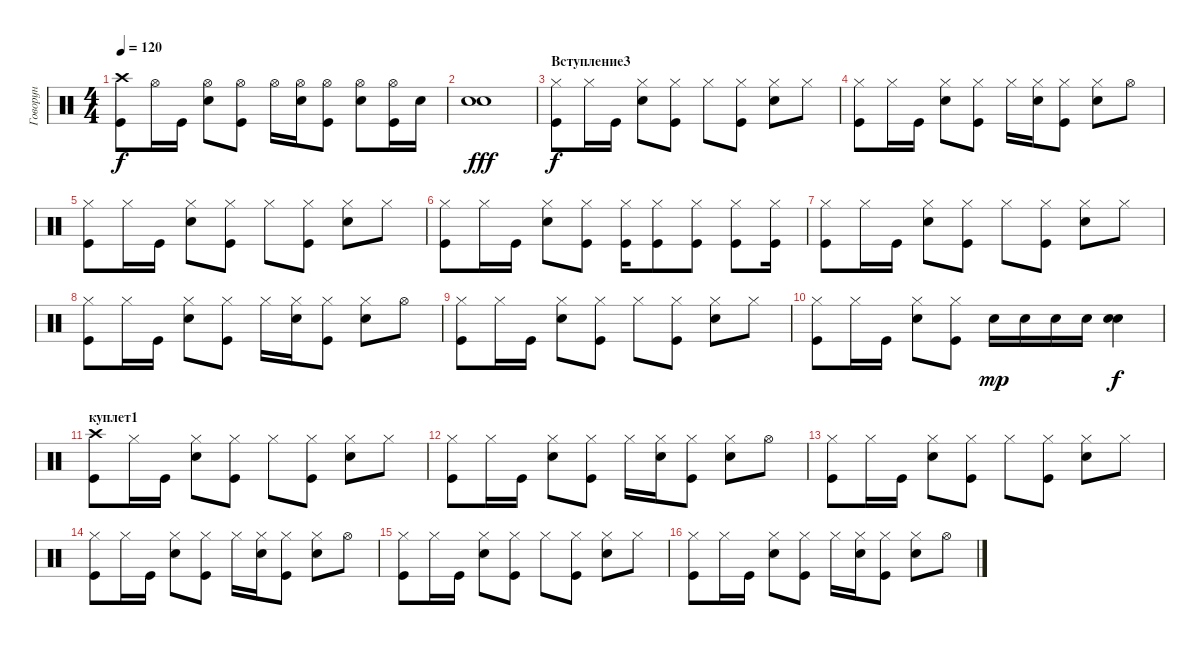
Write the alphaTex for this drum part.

\track ("Говорун" "Говорун") {instrument percussion}
\staff {score}
\articulation defaults
\ts (4 4)
\tempo 120
\clef neutral
\ks c
("Crash high (hit)" "Kick (hit)").8{dy f} "Hi-Hat (open)".16 "Kick (hit)".16 ("Hi-Hat (open)" "Snare (hit) 2").8 ("Hi-Hat (open)" "Kick (hit)").8 "Hi-Hat (open)".16 ("Hi-Hat (open)" "Snare (hit) 2").16 ("Hi-Hat (open)" "Kick (hit)").8 ("Hi-Hat (open)" "Snare (hit) 2").8 ("Hi-Hat (open)" "Kick (hit)").16 "Snare (hit) 2".16 |
("Snare (hit) 2" "Snare (hit) 2").1{dy fff} |
\section ("" "Вступление3")
("Hi-Hat (closed)" "Kick (hit)").8{dy f} "Hi-Hat (closed)".16 "Kick (hit)".16 ("Hi-Hat (closed)" "Snare (hit) 2").8 ("Hi-Hat (closed)" "Kick (hit)").8 "Hi-Hat (closed)".8 ("Hi-Hat (closed)" "Kick (hit)").8 ("Hi-Hat (closed)" "Snare (hit) 2").8 "Hi-Hat (closed)".8 |
("Hi-Hat (closed)" "Kick (hit)").8 "Hi-Hat (closed)".16 "Kick (hit)".16 ("Hi-Hat (closed)" "Snare (hit) 2").8 ("Hi-Hat (closed)" "Kick (hit)").8 "Hi-Hat (closed)".16 ("Hi-Hat (closed)" "Snare (hit) 2").16 ("Hi-Hat (closed)" "Kick (hit)").8 ("Hi-Hat (closed)" "Snare (hit) 2").8 "Hi-Hat (open)".8 |
("Hi-Hat (closed)" "Kick (hit)").8 "Hi-Hat (closed)".16 "Kick (hit)".16 ("Hi-Hat (closed)" "Snare (hit) 2").8 ("Hi-Hat (closed)" "Kick (hit)").8 "Hi-Hat (closed)".8 ("Hi-Hat (closed)" "Kick (hit)").8 ("Hi-Hat (closed)" "Snare (hit) 2").8 "Hi-Hat (closed)".8 |
("Hi-Hat (closed)" "Kick (hit)").8 "Hi-Hat (closed)".16 "Kick (hit)".16 ("Hi-Hat (closed)" "Snare (hit) 2").8 ("Hi-Hat (closed)" "Kick (hit)").8 ("Kick (hit)" "Hi-Hat (closed)").16 ("Kick (hit)" "Hi-Hat (closed)").8 ("Kick (hit)" "Hi-Hat (closed)").8 ("Kick (hit)" "Hi-Hat (closed)").8 ("Kick (hit)" "Hi-Hat (closed)").16 |
("Hi-Hat (closed)" "Kick (hit)").8 "Hi-Hat (closed)".16 "Kick (hit)".16 ("Hi-Hat (closed)" "Snare (hit) 2").8 ("Hi-Hat (closed)" "Kick (hit)").8 "Hi-Hat (closed)".8 ("Hi-Hat (closed)" "Kick (hit)").8 ("Hi-Hat (closed)" "Snare (hit) 2").8 "Hi-Hat (closed)".8 |
("Hi-Hat (closed)" "Kick (hit)").8 "Hi-Hat (closed)".16 "Kick (hit)".16 ("Hi-Hat (closed)" "Snare (hit) 2").8 ("Hi-Hat (closed)" "Kick (hit)").8 "Hi-Hat (closed)".16 ("Hi-Hat (closed)" "Snare (hit) 2").16 ("Hi-Hat (closed)" "Kick (hit)").8 ("Hi-Hat (closed)" "Snare (hit) 2").8 "Hi-Hat (open)".8 |
("Hi-Hat (closed)" "Kick (hit)").8 "Hi-Hat (closed)".16 "Kick (hit)".16 ("Hi-Hat (closed)" "Snare (hit) 2").8 ("Hi-Hat (closed)" "Kick (hit)").8 "Hi-Hat (closed)".8 ("Hi-Hat (closed)" "Kick (hit)").8 ("Hi-Hat (closed)" "Snare (hit) 2").8 "Hi-Hat (closed)".8 |
("Hi-Hat (closed)" "Kick (hit)").8 "Hi-Hat (closed)".16 "Kick (hit)".16 ("Hi-Hat (closed)" "Snare (hit) 2").8 ("Hi-Hat (closed)" "Kick (hit)").8 "Snare (hit) 2".16{dy mp} "Snare (hit) 2".16 "Snare (hit) 2".16 "Snare (hit) 2".16 ("Snare (hit) 2" "Snare (hit) 2").4{dy f} |
\section ("" "куплет1")
("Kick (hit)" "Crash high (hit)").8 "Hi-Hat (closed)".16 "Kick (hit)".16 ("Hi-Hat (closed)" "Snare (hit) 2").8 ("Hi-Hat (closed)" "Kick (hit)").8 "Hi-Hat (closed)".8 ("Hi-Hat (closed)" "Kick (hit)").8 ("Hi-Hat (closed)" "Snare (hit) 2").8 "Hi-Hat (closed)".8 |
("Hi-Hat (closed)" "Kick (hit)").8 "Hi-Hat (closed)".16 "Kick (hit)".16 ("Hi-Hat (closed)" "Snare (hit) 2").8 ("Hi-Hat (closed)" "Kick (hit)").8 "Hi-Hat (closed)".16 ("Hi-Hat (closed)" "Snare (hit) 2").16 ("Hi-Hat (closed)" "Kick (hit)").8 ("Hi-Hat (closed)" "Snare (hit) 2").8 "Hi-Hat (open)".8 |
("Hi-Hat (closed)" "Kick (hit)").8 "Hi-Hat (closed)".16 "Kick (hit)".16 ("Hi-Hat (closed)" "Snare (hit) 2").8 ("Hi-Hat (closed)" "Kick (hit)").8 "Hi-Hat (closed)".8 ("Hi-Hat (closed)" "Kick (hit)").8 ("Hi-Hat (closed)" "Snare (hit) 2").8 "Hi-Hat (closed)".8 |
("Hi-Hat (closed)" "Kick (hit)").8 "Hi-Hat (closed)".16 "Kick (hit)".16 ("Hi-Hat (closed)" "Snare (hit) 2").8 ("Hi-Hat (closed)" "Kick (hit)").8 "Hi-Hat (closed)".16 ("Hi-Hat (closed)" "Snare (hit) 2").16 ("Hi-Hat (closed)" "Kick (hit)").8 ("Hi-Hat (closed)" "Snare (hit) 2").8 "Hi-Hat (open)".8 |
("Hi-Hat (closed)" "Kick (hit)").8 "Hi-Hat (closed)".16 "Kick (hit)".16 ("Hi-Hat (closed)" "Snare (hit) 2").8 ("Hi-Hat (closed)" "Kick (hit)").8 "Hi-Hat (closed)".8 ("Hi-Hat (closed)" "Kick (hit)").8 ("Hi-Hat (closed)" "Snare (hit) 2").8 "Hi-Hat (closed)".8 |
("Hi-Hat (closed)" "Kick (hit)").8 "Hi-Hat (closed)".16 "Kick (hit)".16 ("Hi-Hat (closed)" "Snare (hit) 2").8 ("Hi-Hat (closed)" "Kick (hit)").8 "Hi-Hat (closed)".16 ("Hi-Hat (closed)" "Snare (hit) 2").16 ("Hi-Hat (closed)" "Kick (hit)").8 ("Hi-Hat (closed)" "Snare (hit) 2").8 "Hi-Hat (open)".8
